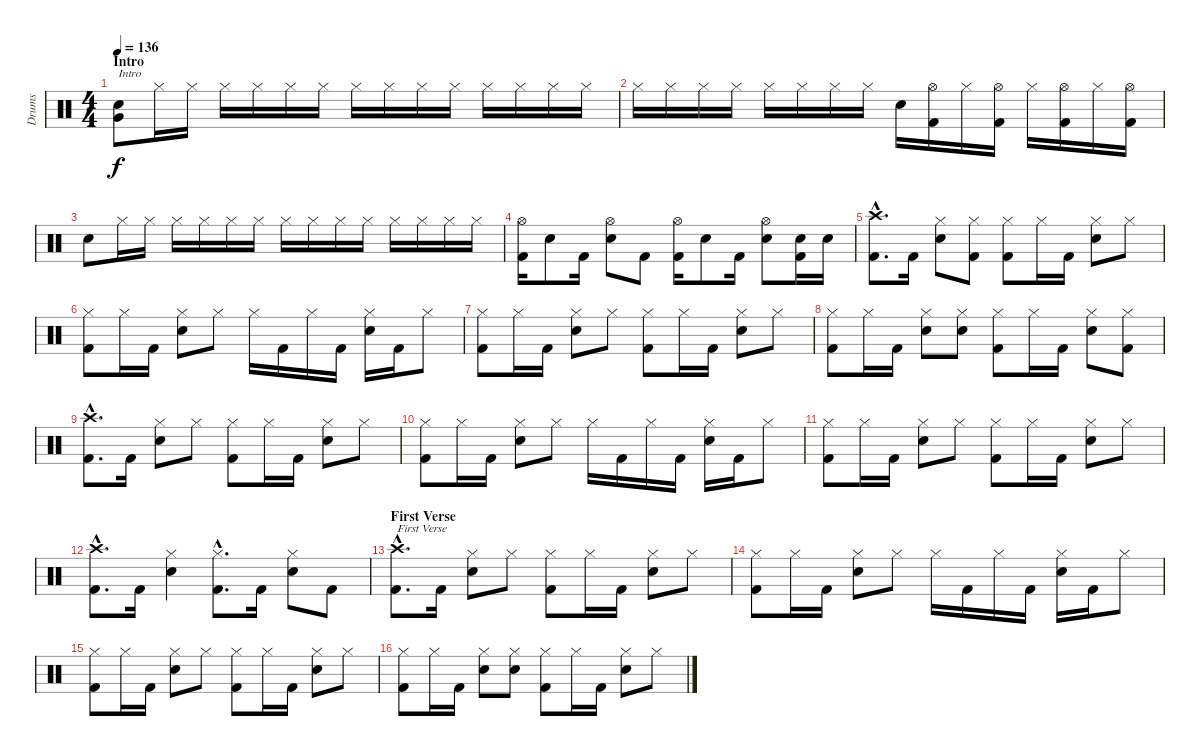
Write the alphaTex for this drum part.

\track ("Drums" "Drums") {instrument percussion}
\staff {score}
\articulation defaults
\ts (4 4)
\section ("" "Intro")
\tempo 136
\clef neutral
\ks c
("Electric Snare (hit)" "Very Low Tom (hit)").8{txt "Intro" dy f} "Hi-Hat (closed)".16 "Hi-Hat (closed)".16 "Hi-Hat (closed)".16 "Hi-Hat (closed)".16 "Hi-Hat (closed)".16 "Hi-Hat (closed)".16 "Hi-Hat (closed)".16 "Hi-Hat (closed)".16 "Hi-Hat (closed)".16 "Hi-Hat (closed)".16 "Hi-Hat (closed)".16 "Hi-Hat (closed)".16 "Hi-Hat (closed)".16 "Hi-Hat (closed)".16 |
"Hi-Hat (closed)".16 "Hi-Hat (closed)".16 "Hi-Hat (closed)".16 "Hi-Hat (closed)".16 "Hi-Hat (closed)".16 "Hi-Hat (closed)".16 "Hi-Hat (closed)".16 "Hi-Hat (closed)".16 "Electric Snare (hit)".16 ("Hi-Hat (open)" "Kick (hit) 2").16 "Hi-Hat (closed)".16 ("Hi-Hat (open)" "Kick (hit) 2").16 "Hi-Hat (closed)".16 ("Hi-Hat (open)" "Kick (hit) 2").16 "Hi-Hat (closed)".16 ("Hi-Hat (open)" "Kick (hit) 2").16 |
"Electric Snare (hit)".8 "Hi-Hat (closed)".16 "Hi-Hat (closed)".16 "Hi-Hat (closed)".16 "Hi-Hat (closed)".16 "Hi-Hat (closed)".16 "Hi-Hat (closed)".16 "Hi-Hat (closed)".16 "Hi-Hat (closed)".16 "Hi-Hat (closed)".16 "Hi-Hat (closed)".16 "Hi-Hat (closed)".16 "Hi-Hat (closed)".16 "Hi-Hat (closed)".16 "Hi-Hat (closed)".16 |
("Hi-Hat (open)" "Kick (hit) 2").16 "Electric Snare (hit)".8 "Kick (hit) 2".16 ("Hi-Hat (open)" "Electric Snare (hit)").8 "Kick (hit) 2".8 ("Hi-Hat (open)" "Kick (hit) 2").16 "Electric Snare (hit)".8 "Kick (hit) 2".16 ("Hi-Hat (open)" "Electric Snare (hit)").8 ("Electric Snare (hit)" "Kick (hit) 2").16 "Electric Snare (hit)".16 |
("Crash high (hit)"{hac} "Kick (hit) 2"{hac}).8{d} "Kick (hit) 2".16 ("Hi-Hat (closed)" "Electric Snare (hit)").8 ("Hi-Hat (closed)" "Kick (hit) 2").8 ("Hi-Hat (closed)" "Kick (hit) 2").8 "Hi-Hat (closed)".16 "Kick (hit) 2".16 ("Hi-Hat (closed)" "Electric Snare (hit)").8 "Hi-Hat (closed)".8 |
("Hi-Hat (closed)" "Kick (hit) 2").8 "Hi-Hat (closed)".16 "Kick (hit) 2".16 ("Hi-Hat (closed)" "Electric Snare (hit)").8 "Hi-Hat (closed)".8 "Hi-Hat (closed)".16 "Kick (hit) 2".16 "Hi-Hat (closed)".16 "Kick (hit) 2".16 ("Hi-Hat (closed)" "Electric Snare (hit)").16 "Kick (hit) 2".16 "Hi-Hat (closed)".8 |
("Hi-Hat (closed)" "Kick (hit) 2").8 "Hi-Hat (closed)".16 "Kick (hit) 2".16 ("Hi-Hat (closed)" "Electric Snare (hit)").8 "Hi-Hat (closed)".8 ("Hi-Hat (closed)" "Kick (hit) 2").8 "Hi-Hat (closed)".16 "Kick (hit) 2".16 ("Hi-Hat (closed)" "Electric Snare (hit)").8 "Hi-Hat (closed)".8 |
("Hi-Hat (closed)" "Kick (hit) 2").8 "Hi-Hat (closed)".16 "Kick (hit) 2".16 ("Hi-Hat (closed)" "Electric Snare (hit)").8 ("Hi-Hat (closed)" "Electric Snare (hit)").8 ("Hi-Hat (closed)" "Kick (hit) 2").8 "Hi-Hat (closed)".16 "Kick (hit) 2".16 ("Hi-Hat (closed)" "Electric Snare (hit)").8 ("Hi-Hat (closed)" "Kick (hit) 2").8 |
("Crash high (hit)"{hac} "Kick (hit) 2"{hac}).8{d} "Kick (hit) 2".16 ("Hi-Hat (closed)" "Electric Snare (hit)").8 "Hi-Hat (closed)".8 ("Hi-Hat (closed)" "Kick (hit) 2").8 "Hi-Hat (closed)".16 "Kick (hit) 2".16 ("Hi-Hat (closed)" "Electric Snare (hit)").8 "Hi-Hat (closed)".8 |
("Hi-Hat (closed)" "Kick (hit) 2").8 "Hi-Hat (closed)".16 "Kick (hit) 2".16 ("Hi-Hat (closed)" "Electric Snare (hit)").8 "Hi-Hat (closed)".8 "Hi-Hat (closed)".16 "Kick (hit) 2".16 "Hi-Hat (closed)".16 "Kick (hit) 2".16 ("Hi-Hat (closed)" "Electric Snare (hit)").16 "Kick (hit) 2".16 "Hi-Hat (closed)".8 |
("Hi-Hat (closed)" "Kick (hit) 2").8 "Hi-Hat (closed)".16 "Kick (hit) 2".16 ("Hi-Hat (closed)" "Electric Snare (hit)").8 "Hi-Hat (closed)".8 ("Hi-Hat (closed)" "Kick (hit) 2").8 "Hi-Hat (closed)".16 "Kick (hit) 2".16 ("Hi-Hat (closed)" "Electric Snare (hit)").8 "Hi-Hat (closed)".8 |
("Crash high (hit)"{hac} "Kick (hit) 2"{hac}).8{d} "Kick (hit) 2".16 ("Hi-Hat (closed)" "Electric Snare (hit)").4 ("Hi-Hat (closed)"{hac} "Kick (hit) 2"{hac}).8{d} "Kick (hit) 2".16 ("Hi-Hat (closed)" "Electric Snare (hit)").8 "Kick (hit) 2".8 |
\section ("" "First Verse")
("Crash high (hit)"{hac} "Kick (hit) 2"{hac}).8{d txt "First Verse"} "Kick (hit) 2".16 ("Hi-Hat (closed)" "Electric Snare (hit)").8 "Hi-Hat (closed)".8 ("Hi-Hat (closed)" "Kick (hit) 2").8 "Hi-Hat (closed)".16 "Kick (hit) 2".16 ("Hi-Hat (closed)" "Electric Snare (hit)").8 "Hi-Hat (closed)".8 |
("Hi-Hat (closed)" "Kick (hit) 2").8 "Hi-Hat (closed)".16 "Kick (hit) 2".16 ("Hi-Hat (closed)" "Electric Snare (hit)").8 "Hi-Hat (closed)".8 "Hi-Hat (closed)".16 "Kick (hit) 2".16 "Hi-Hat (closed)".16 "Kick (hit) 2".16 ("Hi-Hat (closed)" "Electric Snare (hit)").16 "Kick (hit) 2".16 "Hi-Hat (closed)".8 |
("Hi-Hat (closed)" "Kick (hit) 2").8 "Hi-Hat (closed)".16 "Kick (hit) 2".16 ("Hi-Hat (closed)" "Electric Snare (hit)").8 "Hi-Hat (closed)".8 ("Hi-Hat (closed)" "Kick (hit) 2").8 "Hi-Hat (closed)".16 "Kick (hit) 2".16 ("Hi-Hat (closed)" "Electric Snare (hit)").8 "Hi-Hat (closed)".8 |
("Hi-Hat (closed)" "Kick (hit) 2").8 "Hi-Hat (closed)".16 "Kick (hit) 2".16 ("Hi-Hat (closed)" "Electric Snare (hit)").8 ("Hi-Hat (closed)" "Electric Snare (hit)").8 ("Hi-Hat (closed)" "Kick (hit) 2").8 "Hi-Hat (closed)".16 "Kick (hit) 2".16 ("Hi-Hat (closed)" "Electric Snare (hit)").8 "Hi-Hat (closed)".8
